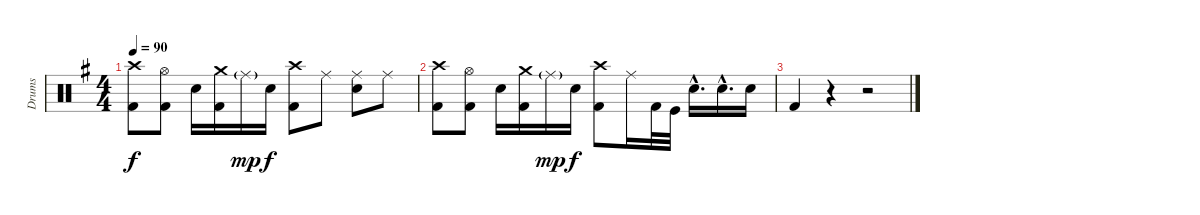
\track ("Drums" "Drums") {instrument percussion}
\staff {score}
\articulation defaults
\ts (4 4)
\tempo 90
\clef neutral
\ks g
("Crash high (hit)" "Kick (hit) 2").8{dy f} ("Hi-Hat (open)" "Kick (hit) 2").8 "Electric Snare (hit)".16 ("Crash medium (hit)" "Kick (hit) 2").16 "Ride (middle)"{g}.16{dy mp} "Electric Snare (hit)".16{dy f} ("Crash high (hit)" "Kick (hit) 2").8 "Ride (middle)".8 ("Ride (middle)" "Electric Snare (hit)").8 "Ride (middle)".8 |
("Crash high (hit)" "Kick (hit) 2").8 ("Hi-Hat (open)" "Kick (hit) 2").8 "Electric Snare (hit)".16 ("Crash medium (hit)" "Kick (hit) 2").16 "Ride (middle)"{g}.16{dy mp} "Electric Snare (hit)".16{dy f} ("Crash high (hit)" "Kick (hit) 2").8 "Ride (middle)".16 "Kick (hit) 2".32{volume 16} "Kick (hit)".32 "Electric Snare (hit)"{hac}.16{d} "Electric Snare (hit)"{hac}.16{d} "Electric Snare (hit)".16 |
"Kick (hit) 2".4{volume 13} r.4 r.2
